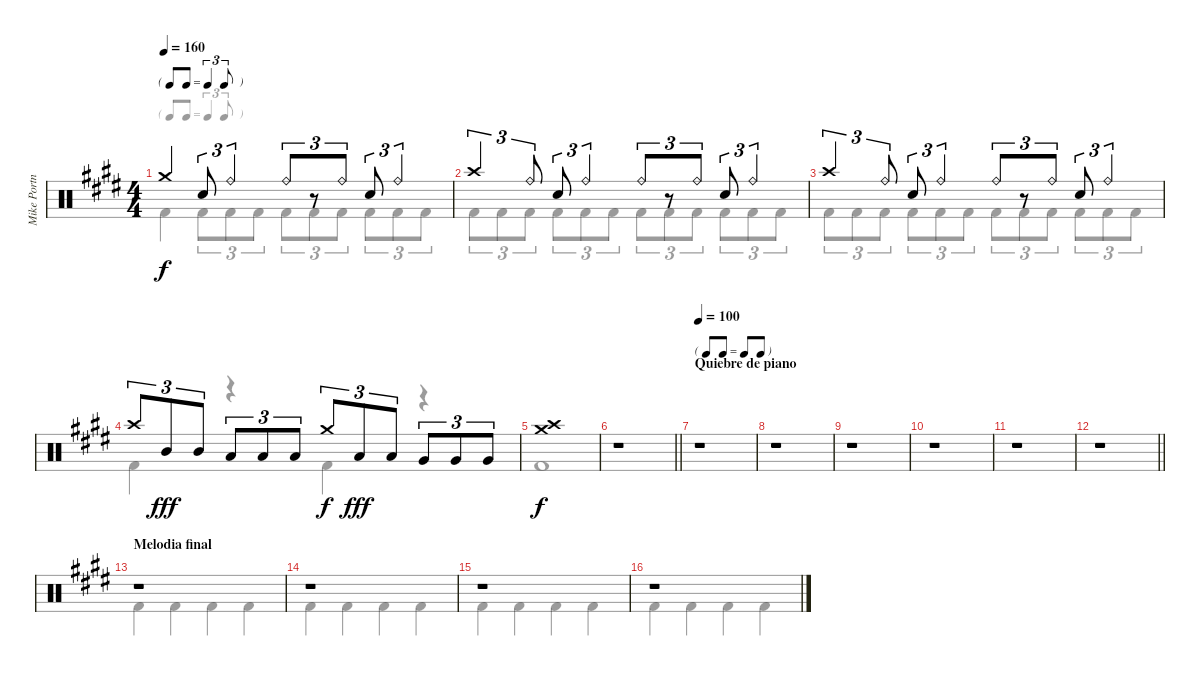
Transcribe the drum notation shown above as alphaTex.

\track ("Mike Portnoy" "Mike Portn") {instrument percussion}
\staff {score}
\articulation defaults
\voice
\ts (4 4)
\tf triplet8th
\tempo 160
\clef neutral
\ks e "Crash medium (hit)".4{dy f} "Snare (hit) 2".8{tu (3 2)} "Ride (bell)".4{tu (3 2)} "Ride (bell)".8{tu (3 2)}
r.8{tu (3 2)} "Ride (bell)".8{tu (3 2)} "Snare (hit) 2".8{tu (3 2)} "Ride (bell)".4{tu (3 2)} |
"Crash high (hit)".4{tu (3 2)} "Ride (bell)".8{tu (3 2)} "Snare (hit) 2".8{tu (3 2)} "Ride (bell)".4{tu (3 2)} "Ride (bell)".8{tu (3 2)} r.8{tu (3 2)} "Ride (bell)".8{tu (3 2)} "Snare (hit) 2".8{tu (3 2)} "Ride (bell)".4{tu (3 2)} |
"Crash high (hit)".4{tu (3 2)} "Ride (bell)".8{tu (3 2)} "Snare (hit) 2".8{tu (3 2)} "Ride (bell)".4{tu (3 2)} "Ride (bell)".8{tu (3 2)} r.8{tu (3 2)} "Ride (bell)".8{tu (3 2)} "Snare (hit) 2".8{tu (3 2)} "Ride (bell)".4{tu (3 2)} |
"Crash high (hit)".8{tu (3 2)} "Mid Tom (hit)".8{tu (3 2) dy fff volume 16} "Mid Tom (hit)".8{tu (3 2)} "Low Tom (hit)".8{tu (3 2)} "Low Tom (hit)".8{tu (3 2)} "Low Tom (hit)".8{tu (3 2)} "Crash medium (hit)".8{tu (3 2) dy f volume 13} "Low Tom (hit)".8{tu (3 2) dy fff volume 16} "Low Tom (hit)".8{tu (3 2)} "Very Low Tom (hit)".8{tu (3 2)} "Very Low Tom (hit)".8{tu (3 2)} "Very Low Tom (hit)".8{tu (3 2)} |
("Crash medium (hit)" "Crash high (hit)").1{dy f volume 13} |
\barLineRight lightlight
r.1 |
\tf none
\section ("" "Quiebre de piano")
\tempo 100
r.1 |
r.1 |
r.1 |
r.1 |
r.1 |
\barLineRight lightlight
r.1 |
\section ("" "Melodia final")
r.1 |
r.1 |
r.1 |
r.1
\voice
\clef neutral
\ottava regular
\simile none
\ks e "Kick (hit) 2".4{dy f} "Kick (hit) 2".8{tu (3 2)} "Kick (hit) 2".8{tu (3 2)} "Kick (hit) 2".8{tu (3 2)} "Kick (hit) 2".8{tu (3 2)} "Kick (hit) 2".8{tu (3 2)} "Kick (hit) 2".8{tu (3 2)} "Kick (hit) 2".8{tu (3 2)} "Kick (hit) 2".8{tu (3 2)} "Kick (hit) 2".8{tu (3 2)}
|
"Kick (hit) 2".8{tu (3 2)} "Kick (hit) 2".8{tu (3 2)} "Kick (hit) 2".8{tu (3 2)} "Kick (hit) 2".8{tu (3 2)} "Kick (hit) 2".8{tu (3 2)} "Kick (hit) 2".8{tu (3 2)} "Kick (hit) 2".8{tu (3 2)} "Kick (hit) 2".8{tu (3 2)} "Kick (hit) 2".8{tu (3 2)} "Kick (hit) 2".8{tu (3 2)} "Kick (hit) 2".8{tu (3 2)} "Kick (hit) 2".8{tu (3 2)} |
"Kick (hit) 2".8{tu (3 2)} "Kick (hit) 2".8{tu (3 2)} "Kick (hit) 2".8{tu (3 2)} "Kick (hit) 2".8{tu (3 2)} "Kick (hit) 2".8{tu (3 2)} "Kick (hit) 2".8{tu (3 2)} "Kick (hit) 2".8{tu (3 2)} "Kick (hit) 2".8{tu (3 2)} "Kick (hit) 2".8{tu (3 2)} "Kick (hit) 2".8{tu (3 2)} "Kick (hit) 2".8{tu (3 2)} "Kick (hit) 2".8{tu (3 2)} |
"Kick (hit) 2".4 r.4 "Kick (hit) 2".4 r.4 |
"Kick (hit) 2".1 |
\barLineRight lightlight
|
|
|
|
|
|
\barLineRight lightlight
|
"Kick (hit) 2".4 "Kick (hit) 2".4 "Kick (hit) 2".4 "Kick (hit) 2".4 |
"Kick (hit) 2".4 "Kick (hit) 2".4 "Kick (hit) 2".4 "Kick (hit) 2".4 |
"Kick (hit) 2".4 "Kick (hit) 2".4 "Kick (hit) 2".4 "Kick (hit) 2".4 |
"Kick (hit) 2".4 "Kick (hit) 2".4 "Kick (hit) 2".4 "Kick (hit) 2".4
